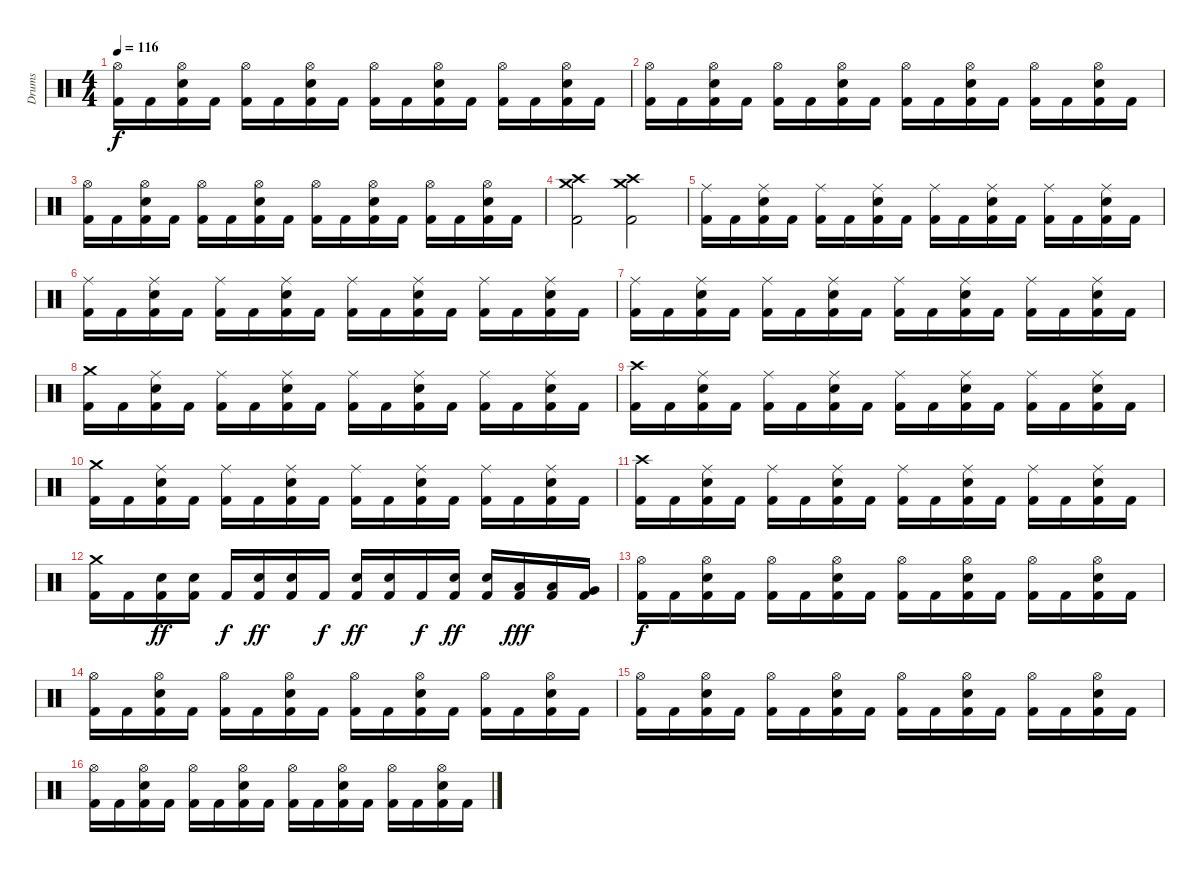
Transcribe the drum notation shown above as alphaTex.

\track ("Drums" "Drums") {instrument percussion}
\staff {score}
\articulation defaults
\ts (4 4)
\tempo 116
\clef neutral
\ks c
("Hi-Hat (open)" "Kick (hit) 2").16{dy f} "Kick (hit) 2".16 ("Hi-Hat (open)" "Electric Snare (hit)" "Kick (hit) 2").16 "Kick (hit) 2".16 ("Hi-Hat (open)" "Kick (hit) 2").16 "Kick (hit) 2".16 ("Hi-Hat (open)" "Electric Snare (hit)" "Kick (hit) 2").16 "Kick (hit) 2".16 ("Hi-Hat (open)" "Kick (hit) 2").16 "Kick (hit) 2".16 ("Hi-Hat (open)" "Electric Snare (hit)" "Kick (hit) 2").16 "Kick (hit) 2".16 ("Hi-Hat (open)" "Kick (hit) 2").16 "Kick (hit) 2".16 ("Hi-Hat (open)" "Electric Snare (hit)" "Kick (hit) 2").16 "Kick (hit) 2".16 |
("Hi-Hat (open)" "Kick (hit) 2").16 "Kick (hit) 2".16 ("Hi-Hat (open)" "Electric Snare (hit)" "Kick (hit) 2").16 "Kick (hit) 2".16 ("Hi-Hat (open)" "Kick (hit) 2").16 "Kick (hit) 2".16 ("Hi-Hat (open)" "Electric Snare (hit)" "Kick (hit) 2").16 "Kick (hit) 2".16 ("Hi-Hat (open)" "Kick (hit) 2").16 "Kick (hit) 2".16 ("Hi-Hat (open)" "Electric Snare (hit)" "Kick (hit) 2").16 "Kick (hit) 2".16 ("Hi-Hat (open)" "Kick (hit) 2").16 "Kick (hit) 2".16 ("Hi-Hat (open)" "Electric Snare (hit)" "Kick (hit) 2").16 "Kick (hit) 2".16 |
("Hi-Hat (open)" "Kick (hit) 2").16 "Kick (hit) 2".16 ("Hi-Hat (open)" "Electric Snare (hit)" "Kick (hit) 2").16 "Kick (hit) 2".16 ("Hi-Hat (open)" "Kick (hit) 2").16 "Kick (hit) 2".16 ("Hi-Hat (open)" "Electric Snare (hit)" "Kick (hit) 2").16 "Kick (hit) 2".16 ("Hi-Hat (open)" "Kick (hit) 2").16 "Kick (hit) 2".16 ("Hi-Hat (open)" "Electric Snare (hit)" "Kick (hit) 2").16 "Kick (hit) 2".16 ("Hi-Hat (open)" "Kick (hit) 2").16 "Kick (hit) 2".16 ("Hi-Hat (open)" "Electric Snare (hit)" "Kick (hit) 2").16 "Kick (hit) 2".16 |
("Crash medium (hit)" "Crash high (hit)" "Kick (hit) 2").2 ("Crash medium (hit)" "Crash high (hit)" "Kick (hit) 2").2 |
("Ride (middle)" "Kick (hit) 2").16 "Kick (hit) 2".16 ("Ride (middle)" "Electric Snare (hit)" "Kick (hit) 2").16 "Kick (hit) 2".16 ("Ride (middle)" "Kick (hit) 2").16 "Kick (hit) 2".16 ("Ride (middle)" "Electric Snare (hit)" "Kick (hit) 2").16 "Kick (hit) 2".16 ("Ride (middle)" "Kick (hit) 2").16 "Kick (hit) 2".16 ("Ride (middle)" "Electric Snare (hit)" "Kick (hit) 2").16 "Kick (hit) 2".16 ("Ride (middle)" "Kick (hit) 2").16 "Kick (hit) 2".16 ("Ride (middle)" "Electric Snare (hit)" "Kick (hit) 2").16 "Kick (hit) 2".16 |
("Ride (middle)" "Kick (hit) 2").16 "Kick (hit) 2".16 ("Ride (middle)" "Electric Snare (hit)" "Kick (hit) 2").16 "Kick (hit) 2".16 ("Ride (middle)" "Kick (hit) 2").16 "Kick (hit) 2".16 ("Ride (middle)" "Electric Snare (hit)" "Kick (hit) 2").16 "Kick (hit) 2".16 ("Ride (middle)" "Kick (hit) 2").16 "Kick (hit) 2".16 ("Ride (middle)" "Electric Snare (hit)" "Kick (hit) 2").16 "Kick (hit) 2".16 ("Ride (middle)" "Kick (hit) 2").16 "Kick (hit) 2".16 ("Ride (middle)" "Electric Snare (hit)" "Kick (hit) 2").16 "Kick (hit) 2".16 |
("Ride (middle)" "Kick (hit) 2").16 "Kick (hit) 2".16 ("Ride (middle)" "Electric Snare (hit)" "Kick (hit) 2").16 "Kick (hit) 2".16 ("Ride (middle)" "Kick (hit) 2").16 "Kick (hit) 2".16 ("Ride (middle)" "Electric Snare (hit)" "Kick (hit) 2").16 "Kick (hit) 2".16 ("Ride (middle)" "Kick (hit) 2").16 "Kick (hit) 2".16 ("Ride (middle)" "Electric Snare (hit)" "Kick (hit) 2").16 "Kick (hit) 2".16 ("Ride (middle)" "Kick (hit) 2").16 "Kick (hit) 2".16 ("Ride (middle)" "Electric Snare (hit)" "Kick (hit) 2").16 "Kick (hit) 2".16 |
("Crash medium (hit)" "Kick (hit) 2").16 "Kick (hit) 2".16 ("Ride (middle)" "Electric Snare (hit)" "Kick (hit) 2").16 "Kick (hit) 2".16 ("Ride (middle)" "Kick (hit) 2").16 "Kick (hit) 2".16 ("Ride (middle)" "Electric Snare (hit)" "Kick (hit) 2").16 "Kick (hit) 2".16 ("Ride (middle)" "Kick (hit) 2").16 "Kick (hit) 2".16 ("Ride (middle)" "Electric Snare (hit)" "Kick (hit) 2").16 "Kick (hit) 2".16 ("Ride (middle)" "Kick (hit) 2").16 "Kick (hit) 2".16 ("Ride (middle)" "Electric Snare (hit)" "Kick (hit) 2").16 "Kick (hit) 2".16 |
("Crash high (hit)" "Kick (hit) 2").16 "Kick (hit) 2".16 ("Ride (middle)" "Electric Snare (hit)" "Kick (hit) 2").16 "Kick (hit) 2".16 ("Ride (middle)" "Kick (hit) 2").16 "Kick (hit) 2".16 ("Ride (middle)" "Electric Snare (hit)" "Kick (hit) 2").16 "Kick (hit) 2".16 ("Ride (middle)" "Kick (hit) 2").16 "Kick (hit) 2".16 ("Ride (middle)" "Electric Snare (hit)" "Kick (hit) 2").16 "Kick (hit) 2".16 ("Ride (middle)" "Kick (hit) 2").16 "Kick (hit) 2".16 ("Ride (middle)" "Electric Snare (hit)" "Kick (hit) 2").16 "Kick (hit) 2".16 |
("Crash medium (hit)" "Kick (hit) 2").16 "Kick (hit) 2".16 ("Ride (middle)" "Electric Snare (hit)" "Kick (hit) 2").16 "Kick (hit) 2".16 ("Ride (middle)" "Kick (hit) 2").16 "Kick (hit) 2".16 ("Ride (middle)" "Electric Snare (hit)" "Kick (hit) 2").16 "Kick (hit) 2".16 ("Ride (middle)" "Kick (hit) 2").16 "Kick (hit) 2".16 ("Ride (middle)" "Electric Snare (hit)" "Kick (hit) 2").16 "Kick (hit) 2".16 ("Ride (middle)" "Kick (hit) 2").16 "Kick (hit) 2".16 ("Ride (middle)" "Electric Snare (hit)" "Kick (hit) 2").16 "Kick (hit) 2".16 |
("Crash high (hit)" "Kick (hit) 2").16 "Kick (hit) 2".16 ("Ride (middle)" "Electric Snare (hit)" "Kick (hit) 2").16 "Kick (hit) 2".16 ("Ride (middle)" "Kick (hit) 2").16 "Kick (hit) 2".16 ("Ride (middle)" "Electric Snare (hit)" "Kick (hit) 2").16 "Kick (hit) 2".16 ("Ride (middle)" "Kick (hit) 2").16 "Kick (hit) 2".16 ("Ride (middle)" "Electric Snare (hit)" "Kick (hit) 2").16 "Kick (hit) 2".16 ("Ride (middle)" "Kick (hit) 2").16 "Kick (hit) 2".16 ("Ride (middle)" "Electric Snare (hit)" "Kick (hit) 2").16 "Kick (hit) 2".16 |
("Crash medium (hit)" "Kick (hit) 2").16 "Kick (hit) 2".16 ("Electric Snare (hit)" "Kick (hit) 2").16{dy ff} ("Electric Snare (hit)" "Kick (hit) 2").16 "Kick (hit) 2".16{dy f} ("Electric Snare (hit)" "Kick (hit) 2").16{dy ff} ("Electric Snare (hit)" "Kick (hit) 2").16 "Kick (hit) 2".16{dy f} ("Electric Snare (hit)" "Kick (hit) 2").16{dy ff} ("Electric Snare (hit)" "Kick (hit) 2").16 "Kick (hit) 2".16{dy f} ("Electric Snare (hit)" "Kick (hit) 2").16{dy ff} ("Electric Snare (hit)" "Kick (hit) 2").16 ("Low Tom (hit)" "Kick (hit) 2").16{dy fff} ("Low Tom (hit)" "Kick (hit) 2").16 ("Very Low Tom (hit)" "Kick (hit) 2").16 |
("Hi-Hat (open)" "Kick (hit) 2").16{dy f} "Kick (hit) 2".16 ("Hi-Hat (open)" "Electric Snare (hit)" "Kick (hit) 2").16 "Kick (hit) 2".16 ("Hi-Hat (open)" "Kick (hit) 2").16 "Kick (hit) 2".16 ("Hi-Hat (open)" "Electric Snare (hit)" "Kick (hit) 2").16 "Kick (hit) 2".16 ("Hi-Hat (open)" "Kick (hit) 2").16 "Kick (hit) 2".16 ("Hi-Hat (open)" "Electric Snare (hit)" "Kick (hit) 2").16 "Kick (hit) 2".16 ("Hi-Hat (open)" "Kick (hit) 2").16 "Kick (hit) 2".16 ("Hi-Hat (open)" "Electric Snare (hit)" "Kick (hit) 2").16 "Kick (hit) 2".16 |
("Hi-Hat (open)" "Kick (hit) 2").16 "Kick (hit) 2".16 ("Hi-Hat (open)" "Electric Snare (hit)" "Kick (hit) 2").16 "Kick (hit) 2".16 ("Hi-Hat (open)" "Kick (hit) 2").16 "Kick (hit) 2".16 ("Hi-Hat (open)" "Electric Snare (hit)" "Kick (hit) 2").16 "Kick (hit) 2".16 ("Hi-Hat (open)" "Kick (hit) 2").16 "Kick (hit) 2".16 ("Hi-Hat (open)" "Electric Snare (hit)" "Kick (hit) 2").16 "Kick (hit) 2".16 ("Hi-Hat (open)" "Kick (hit) 2").16 "Kick (hit) 2".16 ("Hi-Hat (open)" "Electric Snare (hit)" "Kick (hit) 2").16 "Kick (hit) 2".16 |
("Hi-Hat (open)" "Kick (hit) 2").16 "Kick (hit) 2".16 ("Hi-Hat (open)" "Electric Snare (hit)" "Kick (hit) 2").16 "Kick (hit) 2".16 ("Hi-Hat (open)" "Kick (hit) 2").16 "Kick (hit) 2".16 ("Hi-Hat (open)" "Electric Snare (hit)" "Kick (hit) 2").16 "Kick (hit) 2".16 ("Hi-Hat (open)" "Kick (hit) 2").16 "Kick (hit) 2".16 ("Hi-Hat (open)" "Electric Snare (hit)" "Kick (hit) 2").16 "Kick (hit) 2".16 ("Hi-Hat (open)" "Kick (hit) 2").16 "Kick (hit) 2".16 ("Hi-Hat (open)" "Electric Snare (hit)" "Kick (hit) 2").16 "Kick (hit) 2".16 |
("Hi-Hat (open)" "Kick (hit) 2").16 "Kick (hit) 2".16 ("Hi-Hat (open)" "Electric Snare (hit)" "Kick (hit) 2").16 "Kick (hit) 2".16 ("Hi-Hat (open)" "Kick (hit) 2").16 "Kick (hit) 2".16 ("Hi-Hat (open)" "Electric Snare (hit)" "Kick (hit) 2").16 "Kick (hit) 2".16 ("Hi-Hat (open)" "Kick (hit) 2").16 "Kick (hit) 2".16 ("Hi-Hat (open)" "Electric Snare (hit)" "Kick (hit) 2").16 "Kick (hit) 2".16 ("Hi-Hat (open)" "Kick (hit) 2").16 "Kick (hit) 2".16 ("Hi-Hat (open)" "Electric Snare (hit)" "Kick (hit) 2").16 "Kick (hit) 2".16
